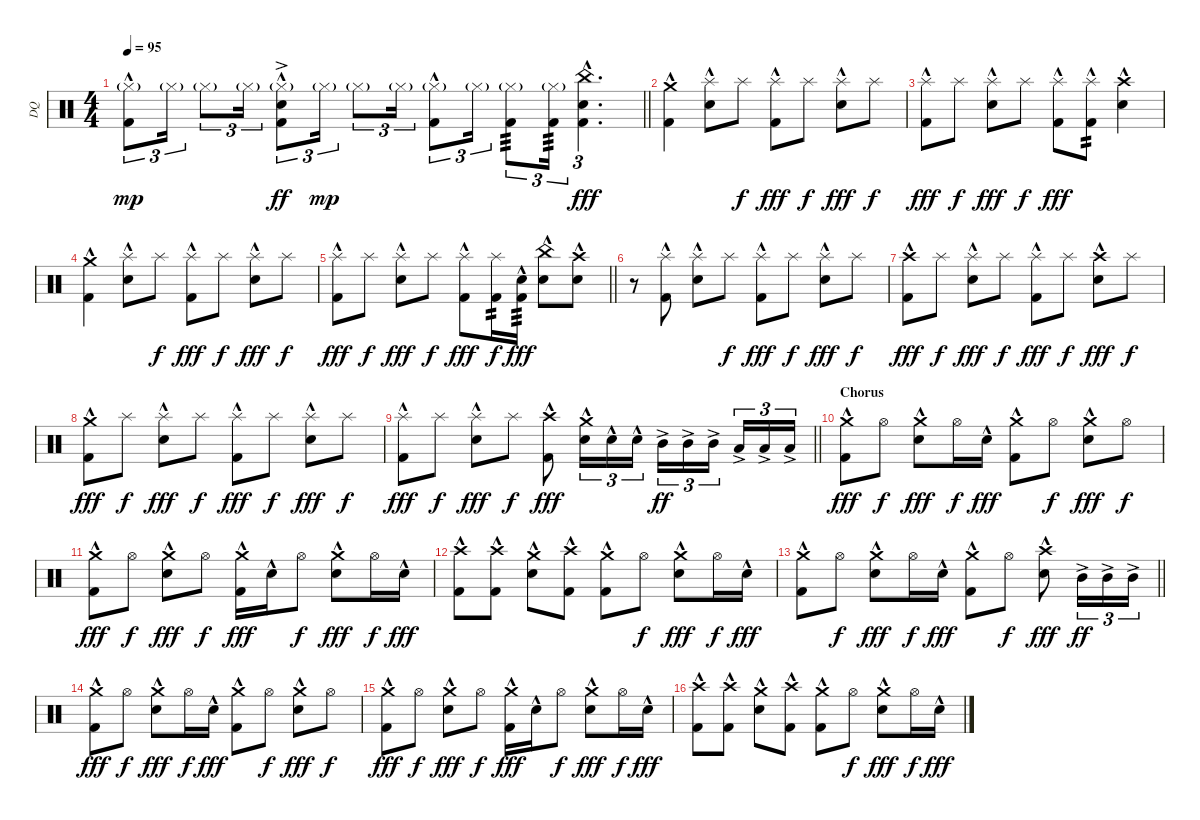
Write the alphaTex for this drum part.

\track ("DQ" "DQ") {instrument percussion}
\staff {score}
\articulation defaults
\ts (4 4)
\tempo 95
\clef neutral
\barLineRight lightlight
\ks c
("Kick (hit) 2"{hac} "Hi-Hat (closed)"{g}).8{tu (3 2) dy mp} "Hi-Hat (closed)"{g}.16{tu (3 2)} "Hi-Hat (closed)"{g}.8{tu (3 2)} "Hi-Hat (closed)"{g}.16{tu (3 2)} ("Kick (hit) 2"{hac} "Hi-Hat (closed)"{g} "Snare (hit) 2"{ac}).8{tu (3 2) dy ff} "Hi-Hat (closed)"{g}.16{tu (3 2) dy mp} "Hi-Hat (closed)"{g}.8{tu (3 2)} "Hi-Hat (closed)"{g}.16{tu (3 2)} ("Kick (hit) 2"{hac} "Hi-Hat (closed)"{g}).8{tu (3 2)} "Hi-Hat (closed)"{g}.16{tu (3 2)} ("Kick (hit) 2" "Hi-Hat (closed)"{g}).8{tu (3 2) tp 3} ("Kick (hit) 2" "Hi-Hat (closed)"{g}).16{tu (3 2) tp 3} ("Kick (hit) 2"{hac} "Snare (hit) 2"{hac} "China (hit)").4{d tu (3 2) dy fff} |
\section ("" "")
("Kick (hit) 2"{hac} "Crash medium (hit)").4 ("Snare (hit) 2"{hac} "Splash (hit)").8 "Splash (hit)".8{dy f} ("Kick (hit) 2"{hac} "Splash (hit)").8{dy fff} "Splash (hit)".8{dy f} ("Snare (hit) 2"{hac} "Splash (hit)").8{dy fff} "Splash (hit)".8{dy f} |
("Kick (hit) 2"{hac} "Splash (hit)").8{dy fff} "Splash (hit)".8{dy f} ("Snare (hit) 2"{hac} "Splash (hit)").8{dy fff} "Splash (hit)".8{dy f} ("Kick (hit) 2"{hac} "Splash (hit)").8{dy fff} ("Kick (hit) 2"{hac} "Splash (hit)").8{tp 2} ("Snare (hit) 2"{hac} "Crash high (hit)").4 |
("Kick (hit) 2"{hac} "Crash medium (hit)").4 ("Snare (hit) 2"{hac} "Splash (hit)").8 "Splash (hit)".8{dy f} ("Kick (hit) 2"{hac} "Splash (hit)").8{dy fff} "Splash (hit)".8{dy f} ("Snare (hit) 2"{hac} "Splash (hit)").8{dy fff} "Splash (hit)".8{dy f} |
\barLineRight lightlight
("Kick (hit) 2"{hac} "Splash (hit)").8{dy fff} "Splash (hit)".8{dy f} ("Snare (hit) 2"{hac} "Splash (hit)").8{dy fff} "Splash (hit)".8{dy f} ("Kick (hit) 2"{hac} "Splash (hit)").8{dy fff} ("Kick (hit) 2" "Splash (hit)").16{tp 2 dy f} ("Kick (hit) 2"{hac} "Snare (hit) 2").16{tp 3 dy fff} ("Snare (hit) 2"{hac} "China (hit)").8 ("Snare (hit) 2"{hac} "Crash high (hit)").8 |
\section ("" "")
r.8 ("Kick (hit) 2"{hac} "Splash (hit)").8 ("Snare (hit) 2"{hac} "Splash (hit)").8 "Splash (hit)".8{dy f} ("Kick (hit) 2"{hac} "Splash (hit)").8{dy fff} "Splash (hit)".8{dy f} ("Snare (hit) 2"{hac} "Splash (hit)").8{dy fff} "Splash (hit)".8{dy f} |
("Kick (hit) 2"{hac} "Crash high (hit)").8{dy fff} "Splash (hit)".8{dy f} ("Snare (hit) 2"{hac} "Splash (hit)").8{dy fff} "Splash (hit)".8{dy f} ("Kick (hit) 2"{hac} "Splash (hit)").8{dy fff} "Splash (hit)".8{dy f} ("Snare (hit) 2"{hac} "Crash high (hit)").8{dy fff} "Splash (hit)".8{dy f} |
("Kick (hit) 2"{hac} "Crash medium (hit)").8{dy fff} "Splash (hit)".8{dy f} ("Snare (hit) 2"{hac} "Splash (hit)").8{dy fff} "Splash (hit)".8{dy f} ("Kick (hit) 2"{hac} "Splash (hit)").8{dy fff} "Splash (hit)".8{dy f} ("Snare (hit) 2"{hac} "Splash (hit)").8{dy fff} "Splash (hit)".8{dy f} |
\barLineRight lightlight
("Kick (hit) 2"{hac} "Splash (hit)").8{dy fff} "Splash (hit)".8{dy f} ("Snare (hit) 2"{hac} "Splash (hit)").8{dy fff} "Splash (hit)".8{dy f} ("Kick (hit) 2"{hac} "Crash high (hit)").8{dy fff} ("Snare (hit) 2"{hac} "Crash medium (hit)").16{tu (3 2)} "Snare (hit) 2"{hac}.16{tu (3 2)} "Snare (hit) 2"{hac}.16{tu (3 2)} "Mid Tom (hit)"{ac}.16{tu (3 2) dy ff} "Mid Tom (hit)"{ac}.16{tu (3 2)} "Mid Tom (hit)"{ac}.16{tu (3 2) beam splitsecondary} "Low Tom (hit)"{ac}.16{tu (3 2)} "Low Tom (hit)"{ac}.16{tu (3 2)} "Low Tom (hit)"{ac}.16{tu (3 2)} |
\section ("" "Chorus")
("Kick (hit) 2"{hac} "Crash medium (hit)").8{dy fff} "Hi-Hat (open)".8{dy f} ("Snare (hit) 2"{hac} "Crash medium (hit)").8{dy fff} "Hi-Hat (open)".16{dy f} "Snare (hit) 2"{hac}.16{dy fff} ("Kick (hit) 2"{hac} "Crash medium (hit)").8 "Hi-Hat (open)".8{dy f} ("Snare (hit) 2"{hac} "Crash medium (hit)").8{dy fff} "Hi-Hat (open)".8{dy f} |
("Kick (hit) 2"{hac} "Crash medium (hit)").8{dy fff} "Hi-Hat (open)".8{dy f} ("Snare (hit) 2"{hac} "Crash medium (hit)").8{dy fff} "Hi-Hat (open)".8{dy f} ("Kick (hit) 2"{hac} "Crash medium (hit)").16{dy fff} "Snare (hit) 2"{hac}.16 "Hi-Hat (open)".8{dy f} ("Snare (hit) 2"{hac} "Crash medium (hit)").8{dy fff} "Hi-Hat (open)".16{dy f} "Snare (hit) 2"{hac}.16{dy fff} |
("Kick (hit) 2"{hac} "Crash high (hit)").8 ("Kick (hit) 2"{hac} "Crash high (hit)").8 ("Snare (hit) 2"{hac} "Crash medium (hit)").8 ("Kick (hit) 2"{hac} "Crash high (hit)").8 ("Kick (hit) 2"{hac} "Crash medium (hit)").8 "Hi-Hat (open)".8{dy f} ("Snare (hit) 2"{hac} "Crash medium (hit)").8{dy fff} "Hi-Hat (open)".16{dy f} "Snare (hit) 2"{hac}.16{dy fff} |
\barLineRight lightlight
("Kick (hit) 2"{hac} "Crash medium (hit)").8 "Hi-Hat (open)".8{dy f} ("Snare (hit) 2"{hac} "Crash medium (hit)").8{dy fff} "Hi-Hat (open)".16{dy f} "Snare (hit) 2"{hac}.16{dy fff} ("Kick (hit) 2"{hac} "Crash medium (hit)").8 "Hi-Hat (open)".8{dy f} ("Snare (hit) 2"{hac} "Crash high (hit)").8{dy fff} "Mid Tom (hit)"{ac}.16{tu (3 2) dy ff} "Mid Tom (hit)"{ac}.16{tu (3 2)} "Mid Tom (hit)"{ac}.16{tu (3 2)} |
\section ("" "")
("Kick (hit) 2"{hac} "Crash medium (hit)").8{dy fff} "Hi-Hat (open)".8{dy f} ("Snare (hit) 2"{hac} "Crash medium (hit)").8{dy fff} "Hi-Hat (open)".16{dy f} "Snare (hit) 2"{hac}.16{dy fff} ("Kick (hit) 2"{hac} "Crash medium (hit)").8 "Hi-Hat (open)".8{dy f} ("Snare (hit) 2"{hac} "Crash medium (hit)").8{dy fff} "Hi-Hat (open)".8{dy f} |
("Kick (hit) 2"{hac} "Crash medium (hit)").8{dy fff} "Hi-Hat (open)".8{dy f} ("Snare (hit) 2"{hac} "Crash medium (hit)").8{dy fff} "Hi-Hat (open)".8{dy f} ("Kick (hit) 2"{hac} "Crash medium (hit)").16{dy fff} "Snare (hit) 2"{hac}.16 "Hi-Hat (open)".8{dy f} ("Snare (hit) 2"{hac} "Crash medium (hit)").8{dy fff} "Hi-Hat (open)".16{dy f} "Snare (hit) 2"{hac}.16{dy fff} |
("Kick (hit) 2"{hac} "Crash high (hit)").8 ("Kick (hit) 2"{hac} "Crash high (hit)").8 ("Snare (hit) 2"{hac} "Crash medium (hit)").8 ("Kick (hit) 2"{hac} "Crash high (hit)").8 ("Kick (hit) 2"{hac} "Crash medium (hit)").8 "Hi-Hat (open)".8{dy f} ("Snare (hit) 2"{hac} "Crash medium (hit)").8{dy fff} "Hi-Hat (open)".16{dy f} "Snare (hit) 2"{hac}.16{dy fff}
